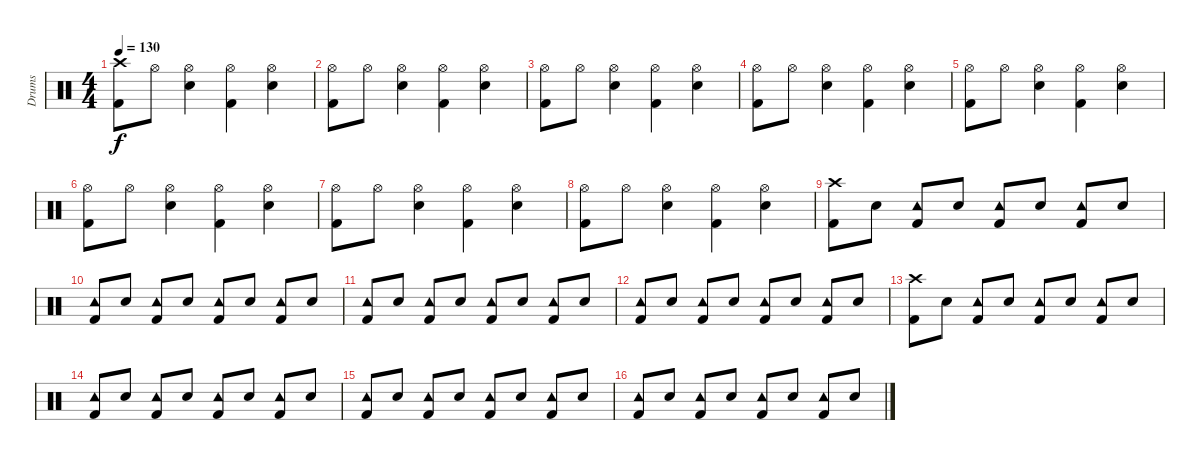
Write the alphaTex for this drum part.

\track ("Drums" "Drums") {instrument percussion}
\staff {score}
\articulation defaults
\ts (4 4)
\tempo 130
\clef neutral
\ks c
("Crash high (hit)" "Kick (hit) 2").8{dy f} "Hi-Hat (open)".8 ("Hi-Hat (open)" "Snare (hit) 2").4 ("Hi-Hat (open)" "Kick (hit) 2").4 ("Hi-Hat (open)" "Snare (hit) 2").4 |
("Hi-Hat (open)" "Kick (hit) 2").8 "Hi-Hat (open)".8 ("Hi-Hat (open)" "Snare (hit) 2").4 ("Hi-Hat (open)" "Kick (hit) 2").4 ("Hi-Hat (open)" "Snare (hit) 2").4 |
("Hi-Hat (open)" "Kick (hit) 2").8 "Hi-Hat (open)".8 ("Hi-Hat (open)" "Snare (hit) 2").4 ("Hi-Hat (open)" "Kick (hit) 2").4 ("Hi-Hat (open)" "Snare (hit) 2").4 |
("Hi-Hat (open)" "Kick (hit) 2").8 "Hi-Hat (open)".8 ("Hi-Hat (open)" "Snare (hit) 2").4 ("Hi-Hat (open)" "Kick (hit) 2").4 ("Hi-Hat (open)" "Snare (hit) 2").4 |
("Hi-Hat (open)" "Kick (hit) 2").8 "Hi-Hat (open)".8 ("Hi-Hat (open)" "Snare (hit) 2").4 ("Hi-Hat (open)" "Kick (hit) 2").4 ("Hi-Hat (open)" "Snare (hit) 2").4 |
("Hi-Hat (open)" "Kick (hit) 2").8 "Hi-Hat (open)".8 ("Hi-Hat (open)" "Snare (hit) 2").4 ("Hi-Hat (open)" "Kick (hit) 2").4 ("Hi-Hat (open)" "Snare (hit) 2").4 |
("Hi-Hat (open)" "Kick (hit) 2").8 "Hi-Hat (open)".8 ("Hi-Hat (open)" "Snare (hit) 2").4 ("Hi-Hat (open)" "Kick (hit) 2").4 ("Hi-Hat (open)" "Snare (hit) 2").4 |
("Hi-Hat (open)" "Kick (hit) 2").8 "Hi-Hat (open)".8 ("Hi-Hat (open)" "Snare (hit) 2").4 ("Hi-Hat (open)" "Kick (hit) 2").4 ("Hi-Hat (open)" "Snare (hit) 2").4 |
("Crash high (hit)" "Kick (hit) 2").8 "Snare (hit) 2".8 ("Tambourine (hit)" "Kick (hit) 2").8 "Snare (hit) 2".8 ("Tambourine (hit)" "Kick (hit) 2").8 "Snare (hit) 2".8 ("Tambourine (hit)" "Kick (hit) 2").8 "Snare (hit) 2".8 |
("Tambourine (hit)" "Kick (hit) 2").8 "Snare (hit) 2".8 ("Tambourine (hit)" "Kick (hit) 2").8 "Snare (hit) 2".8 ("Tambourine (hit)" "Kick (hit) 2").8 "Snare (hit) 2".8 ("Tambourine (hit)" "Kick (hit) 2").8 "Snare (hit) 2".8 |
("Tambourine (hit)" "Kick (hit) 2").8 "Snare (hit) 2".8 ("Tambourine (hit)" "Kick (hit) 2").8 "Snare (hit) 2".8 ("Tambourine (hit)" "Kick (hit) 2").8 "Snare (hit) 2".8 ("Tambourine (hit)" "Kick (hit) 2").8 "Snare (hit) 2".8 |
("Tambourine (hit)" "Kick (hit) 2").8 "Snare (hit) 2".8 ("Tambourine (hit)" "Kick (hit) 2").8 "Snare (hit) 2".8 ("Tambourine (hit)" "Kick (hit) 2").8 "Snare (hit) 2".8 ("Tambourine (hit)" "Kick (hit) 2").8 "Snare (hit) 2".8 |
("Crash high (hit)" "Kick (hit) 2").8 "Snare (hit) 2".8 ("Tambourine (hit)" "Kick (hit) 2").8 "Snare (hit) 2".8 ("Tambourine (hit)" "Kick (hit) 2").8 "Snare (hit) 2".8 ("Tambourine (hit)" "Kick (hit) 2").8 "Snare (hit) 2".8 |
("Tambourine (hit)" "Kick (hit) 2").8 "Snare (hit) 2".8 ("Tambourine (hit)" "Kick (hit) 2").8 "Snare (hit) 2".8 ("Tambourine (hit)" "Kick (hit) 2").8 "Snare (hit) 2".8 ("Tambourine (hit)" "Kick (hit) 2").8 "Snare (hit) 2".8 |
("Tambourine (hit)" "Kick (hit) 2").8 "Snare (hit) 2".8 ("Tambourine (hit)" "Kick (hit) 2").8 "Snare (hit) 2".8 ("Tambourine (hit)" "Kick (hit) 2").8 "Snare (hit) 2".8 ("Tambourine (hit)" "Kick (hit) 2").8 "Snare (hit) 2".8 |
("Tambourine (hit)" "Kick (hit) 2").8 "Snare (hit) 2".8 ("Tambourine (hit)" "Kick (hit) 2").8 "Snare (hit) 2".8 ("Tambourine (hit)" "Kick (hit) 2").8 "Snare (hit) 2".8 ("Tambourine (hit)" "Kick (hit) 2").8 "Snare (hit) 2".8
